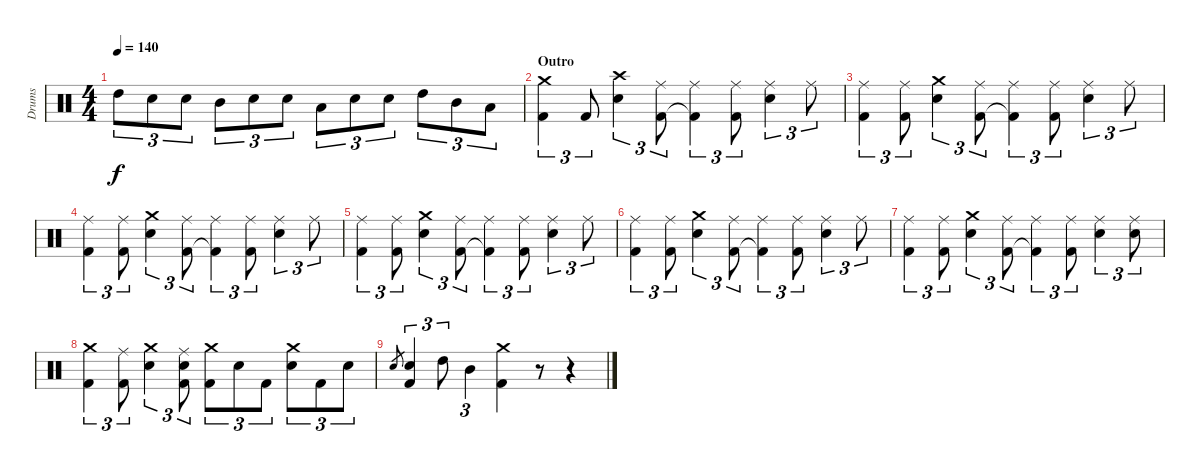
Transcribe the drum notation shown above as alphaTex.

\track ("Drums" "Drums") {instrument percussion}
\staff {score}
\articulation defaults
\ts (4 4)
\tempo 140
\clef neutral
\ks c "High Tom (hit)".8{tu (3 2) dy f} "Snare (hit) 2".8{tu (3 2)} "Snare (hit) 2".8{tu (3 2)} "Mid Tom (hit)".8{tu (3 2)} "Snare (hit) 2".8{tu (3 2)} "Snare (hit) 2".8{tu (3 2)} "Low Tom (hit)".8{tu (3 2)} "Snare (hit) 2".8{tu (3 2)} "Snare (hit) 2".8{tu (3 2)} "High Tom (hit)".8{tu (3 2)} "Mid Tom (hit)".8{tu (3 2)} "Low Tom (hit)".8{tu (3 2)}
|
\section ("" "Outro")
("Crash medium (hit)" "Kick (hit) 2").4{tu (3 2)} "Kick (hit) 2".8{tu (3 2)} ("Crash high (hit)" "Snare (hit) 2").4{tu (3 2)} ("Ride (middle)" "Kick (hit) 2").8{tu (3 2)} ("Ride (middle)" "Kick (hit) 2"{t}).4{tu (3 2)} ("Ride (middle)" "Kick (hit) 2").8{tu (3 2)} ("Ride (middle)" "Snare (hit) 2").4{tu (3 2)} "Ride (middle)".8{tu (3 2)} |
("Ride (middle)" "Kick (hit) 2").4{tu (3 2)} ("Ride (middle)" "Kick (hit) 2").8{tu (3 2)} ("Crash medium (hit)" "Snare (hit) 2").4{tu (3 2)} ("Ride (middle)" "Kick (hit) 2").8{tu (3 2)} ("Ride (middle)" "Kick (hit) 2"{t}).4{tu (3 2)} ("Ride (middle)" "Kick (hit) 2").8{tu (3 2)} ("Ride (middle)" "Snare (hit) 2").4{tu (3 2)} "Ride (middle)".8{tu (3 2)} |
("Ride (middle)" "Kick (hit) 2").4{tu (3 2)} ("Ride (middle)" "Kick (hit) 2").8{tu (3 2)} ("Crash medium (hit)" "Snare (hit) 2").4{tu (3 2)} ("Ride (middle)" "Kick (hit) 2").8{tu (3 2)} ("Ride (middle)" "Kick (hit) 2"{t}).4{tu (3 2)} ("Ride (middle)" "Kick (hit) 2").8{tu (3 2)} ("Ride (middle)" "Snare (hit) 2").4{tu (3 2)} "Ride (middle)".8{tu (3 2)} |
("Ride (middle)" "Kick (hit) 2").4{tu (3 2)} ("Ride (middle)" "Kick (hit) 2").8{tu (3 2)} ("Crash medium (hit)" "Snare (hit) 2").4{tu (3 2)} ("Ride (middle)" "Kick (hit) 2").8{tu (3 2)} ("Ride (middle)" "Kick (hit) 2"{t}).4{tu (3 2)} ("Ride (middle)" "Kick (hit) 2").8{tu (3 2)} ("Ride (middle)" "Snare (hit) 2").4{tu (3 2)} "Ride (middle)".8{tu (3 2)} |
("Ride (middle)" "Kick (hit) 2").4{tu (3 2)} ("Ride (middle)" "Kick (hit) 2").8{tu (3 2)} ("Crash medium (hit)" "Snare (hit) 2").4{tu (3 2)} ("Ride (middle)" "Kick (hit) 2").8{tu (3 2)} ("Ride (middle)" "Kick (hit) 2"{t}).4{tu (3 2)} ("Ride (middle)" "Kick (hit) 2").8{tu (3 2)} ("Ride (middle)" "Snare (hit) 2").4{tu (3 2)} "Ride (middle)".8{tu (3 2)} |
("Ride (middle)" "Kick (hit) 2").4{tu (3 2)} ("Ride (middle)" "Kick (hit) 2").8{tu (3 2)} ("Crash medium (hit)" "Snare (hit) 2").4{tu (3 2)} ("Ride (middle)" "Kick (hit) 2").8{tu (3 2)} ("Ride (middle)" "Kick (hit) 2"{t}).4{tu (3 2)} ("Ride (middle)" "Kick (hit) 2").8{tu (3 2)} ("Ride (middle)" "Snare (hit) 2").4{tu (3 2)} ("Ride (middle)" "Snare (hit) 2").8{tu (3 2)} |
("Crash medium (hit)" "Kick (hit) 2").4{tu (3 2)} ("Ride (middle)" "Kick (hit) 2").8{tu (3 2)} ("Crash medium (hit)" "Snare (hit) 2").4{tu (3 2)} ("Ride (middle)" "Snare (hit) 2" "Kick (hit) 2").8{tu (3 2)} ("Crash medium (hit)" "Kick (hit) 2").8{tu (3 2)} "Snare (hit) 2".8{tu (3 2)} "Kick (hit) 2".8{tu (3 2)} ("Crash medium (hit)" "Snare (hit) 2").8{tu (3 2)} "Kick (hit) 2".8{tu (3 2)} "Snare (hit) 2".8{tu (3 2)} |
"Snare (hit) 2".8{gr} ("Snare (hit) 2" "Kick (hit) 2").4{tu (3 2)} "High Tom (hit)".8{tu (3 2)} "Mid Tom (hit)".4{tu (3 2)} ("Crash medium (hit)" "Kick (hit) 2").4 r.8 r.4
